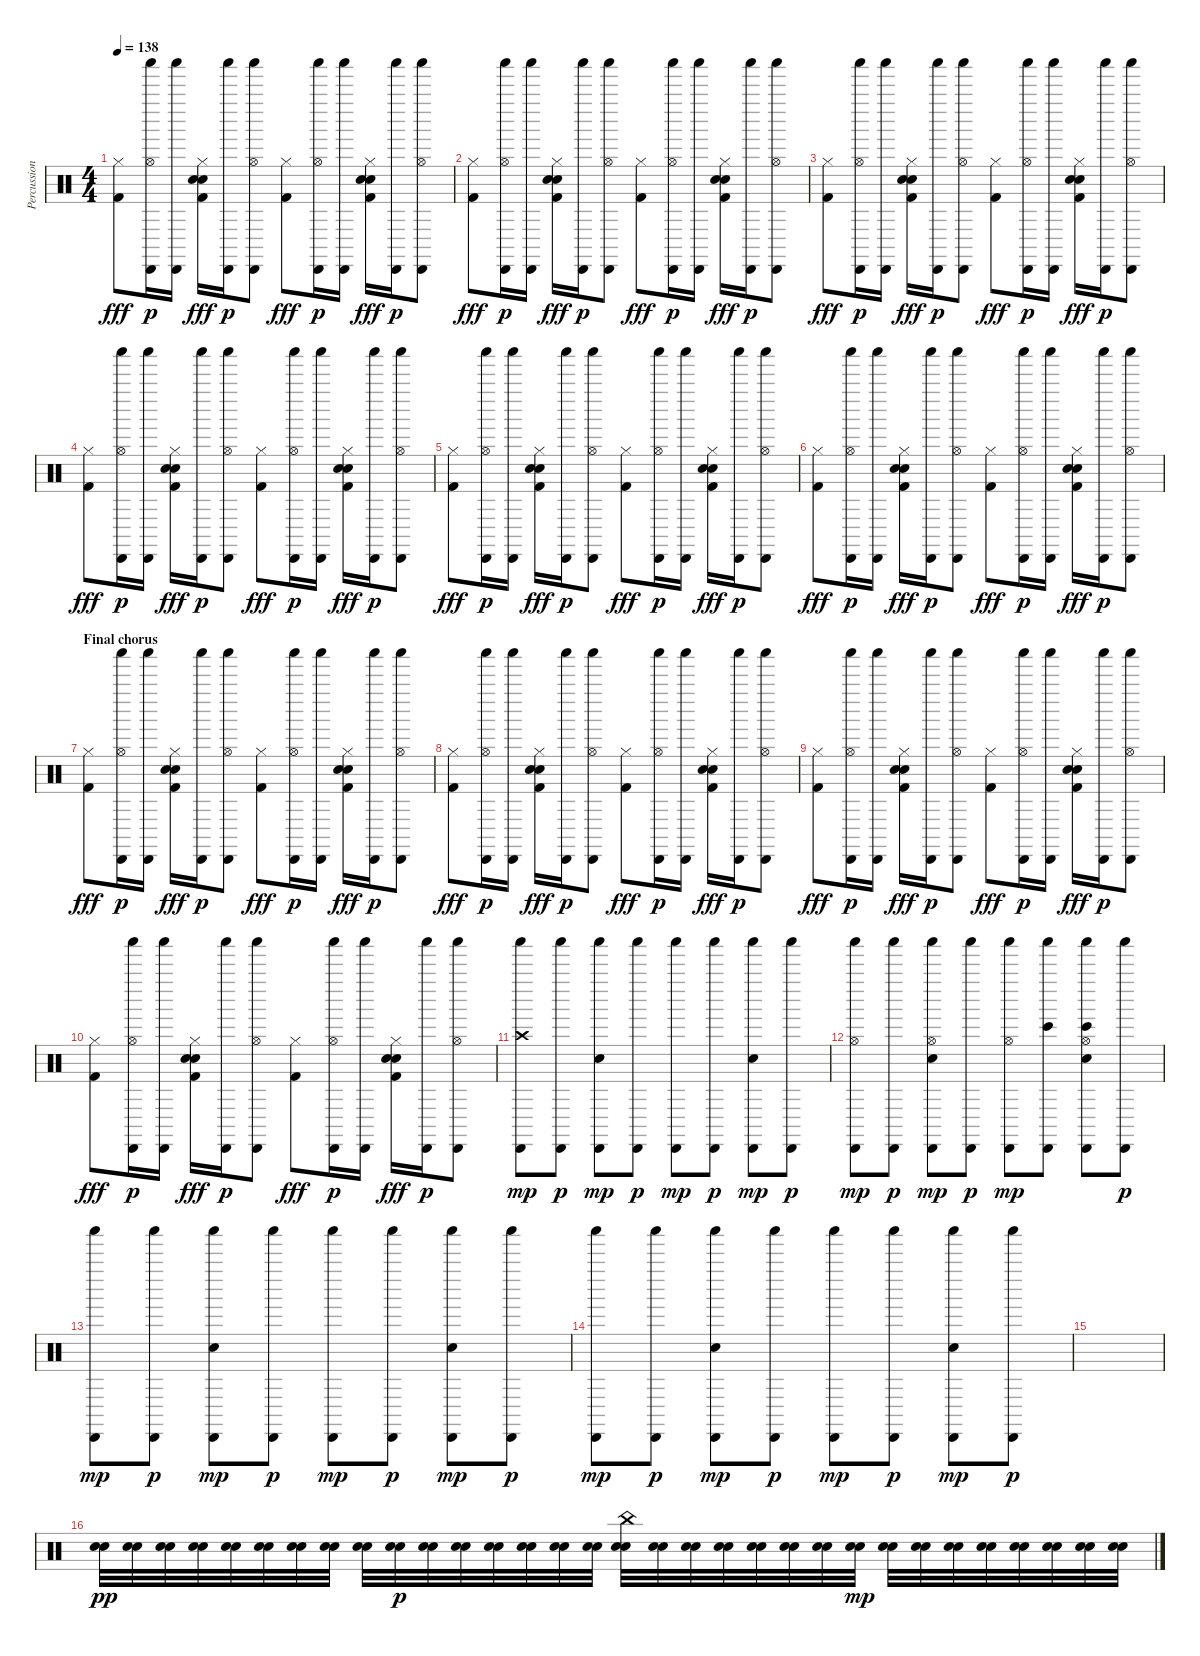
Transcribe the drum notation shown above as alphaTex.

\track ("Percussion" "Percussion") {instrument percussion}
\staff {score}
\articulation defaults
\ts (4 4)
\tempo 138
\clef neutral
\ks c
("Hi-Hat (closed)" "Kick (hit) 2").8{dy fff} ("Cabasa (hit)" "Hi-Hat (open)" "Shaker (hit)").16{dy p} ("Cabasa (hit)" "Shaker (hit)").16 ("Hi-Hat (closed)" "Snare (hit) 2" "Hand Clap (hit)" "Kick (hit) 2").16{dy fff} ("Cabasa (hit)" "Shaker (hit)").16{dy p} ("Cabasa (hit)" "Hi-Hat (open)" "Shaker (hit)").8 ("Hi-Hat (closed)" "Kick (hit) 2").8{dy fff} ("Cabasa (hit)" "Hi-Hat (open)" "Shaker (hit)").16{dy p} ("Cabasa (hit)" "Shaker (hit)").16 ("Hi-Hat (closed)" "Snare (hit) 2" "Hand Clap (hit)" "Kick (hit) 2").16{dy fff} ("Cabasa (hit)" "Shaker (hit)").16{dy p} ("Cabasa (hit)" "Hi-Hat (open)" "Shaker (hit)").8 |
("Hi-Hat (closed)" "Kick (hit) 2").8{dy fff} ("Cabasa (hit)" "Hi-Hat (open)" "Shaker (hit)").16{dy p} ("Cabasa (hit)" "Shaker (hit)").16 ("Hi-Hat (closed)" "Snare (hit) 2" "Hand Clap (hit)" "Kick (hit) 2").16{dy fff} ("Cabasa (hit)" "Shaker (hit)").16{dy p} ("Cabasa (hit)" "Hi-Hat (open)" "Shaker (hit)").8 ("Hi-Hat (closed)" "Kick (hit) 2").8{dy fff} ("Cabasa (hit)" "Hi-Hat (open)" "Shaker (hit)").16{dy p} ("Cabasa (hit)" "Shaker (hit)").16 ("Hi-Hat (closed)" "Snare (hit) 2" "Hand Clap (hit)" "Kick (hit) 2").16{dy fff} ("Cabasa (hit)" "Shaker (hit)").16{dy p} ("Cabasa (hit)" "Hi-Hat (open)" "Shaker (hit)").8 |
("Hi-Hat (closed)" "Kick (hit) 2").8{dy fff} ("Cabasa (hit)" "Hi-Hat (open)" "Shaker (hit)").16{dy p} ("Cabasa (hit)" "Shaker (hit)").16 ("Hi-Hat (closed)" "Snare (hit) 2" "Hand Clap (hit)" "Kick (hit) 2").16{dy fff} ("Cabasa (hit)" "Shaker (hit)").16{dy p} ("Cabasa (hit)" "Hi-Hat (open)" "Shaker (hit)").8 ("Hi-Hat (closed)" "Kick (hit) 2").8{dy fff} ("Cabasa (hit)" "Hi-Hat (open)" "Shaker (hit)").16{dy p} ("Cabasa (hit)" "Shaker (hit)").16 ("Hi-Hat (closed)" "Snare (hit) 2" "Hand Clap (hit)" "Kick (hit) 2").16{dy fff} ("Cabasa (hit)" "Shaker (hit)").16{dy p} ("Cabasa (hit)" "Hi-Hat (open)" "Shaker (hit)").8 |
("Hi-Hat (closed)" "Kick (hit) 2").8{dy fff} ("Cabasa (hit)" "Hi-Hat (open)" "Shaker (hit)").16{dy p} ("Cabasa (hit)" "Shaker (hit)").16 ("Hi-Hat (closed)" "Snare (hit) 2" "Hand Clap (hit)" "Kick (hit) 2").16{dy fff} ("Cabasa (hit)" "Shaker (hit)").16{dy p} ("Cabasa (hit)" "Hi-Hat (open)" "Shaker (hit)").8 ("Hi-Hat (closed)" "Kick (hit) 2").8{dy fff} ("Cabasa (hit)" "Hi-Hat (open)" "Shaker (hit)").16{dy p} ("Cabasa (hit)" "Shaker (hit)").16 ("Hi-Hat (closed)" "Snare (hit) 2" "Hand Clap (hit)" "Kick (hit) 2").16{dy fff} ("Cabasa (hit)" "Shaker (hit)").16{dy p} ("Cabasa (hit)" "Hi-Hat (open)" "Shaker (hit)").8 |
("Hi-Hat (closed)" "Kick (hit) 2").8{dy fff} ("Cabasa (hit)" "Hi-Hat (open)" "Shaker (hit)").16{dy p} ("Cabasa (hit)" "Shaker (hit)").16 ("Hi-Hat (closed)" "Snare (hit) 2" "Hand Clap (hit)" "Kick (hit) 2").16{dy fff} ("Cabasa (hit)" "Shaker (hit)").16{dy p} ("Cabasa (hit)" "Hi-Hat (open)" "Shaker (hit)").8 ("Hi-Hat (closed)" "Kick (hit) 2").8{dy fff} ("Cabasa (hit)" "Hi-Hat (open)" "Shaker (hit)").16{dy p} ("Cabasa (hit)" "Shaker (hit)").16 ("Hi-Hat (closed)" "Snare (hit) 2" "Hand Clap (hit)" "Kick (hit) 2").16{dy fff} ("Cabasa (hit)" "Shaker (hit)").16{dy p} ("Cabasa (hit)" "Hi-Hat (open)" "Shaker (hit)").8 |
("Hi-Hat (closed)" "Kick (hit) 2").8{dy fff} ("Cabasa (hit)" "Hi-Hat (open)" "Shaker (hit)").16{dy p} ("Cabasa (hit)" "Shaker (hit)").16 ("Hi-Hat (closed)" "Snare (hit) 2" "Hand Clap (hit)" "Kick (hit) 2").16{dy fff} ("Cabasa (hit)" "Shaker (hit)").16{dy p} ("Cabasa (hit)" "Hi-Hat (open)" "Shaker (hit)").8 ("Hi-Hat (closed)" "Kick (hit) 2").8{dy fff} ("Cabasa (hit)" "Hi-Hat (open)" "Shaker (hit)").16{dy p} ("Cabasa (hit)" "Shaker (hit)").16 ("Hi-Hat (closed)" "Snare (hit) 2" "Hand Clap (hit)" "Kick (hit) 2").16{dy fff} ("Cabasa (hit)" "Shaker (hit)").16{dy p} ("Cabasa (hit)" "Hi-Hat (open)" "Shaker (hit)").8 |
\section ("" "Final chorus")
("Hi-Hat (closed)" "Kick (hit) 2").8{dy fff} ("Cabasa (hit)" "Hi-Hat (open)" "Shaker (hit)").16{dy p} ("Cabasa (hit)" "Shaker (hit)").16 ("Hi-Hat (closed)" "Snare (hit) 2" "Hand Clap (hit)" "Kick (hit) 2").16{dy fff} ("Cabasa (hit)" "Shaker (hit)").16{dy p} ("Cabasa (hit)" "Hi-Hat (open)" "Shaker (hit)").8 ("Hi-Hat (closed)" "Kick (hit) 2").8{dy fff} ("Cabasa (hit)" "Hi-Hat (open)" "Shaker (hit)").16{dy p} ("Cabasa (hit)" "Shaker (hit)").16 ("Hi-Hat (closed)" "Snare (hit) 2" "Hand Clap (hit)" "Kick (hit) 2").16{dy fff} ("Cabasa (hit)" "Shaker (hit)").16{dy p} ("Cabasa (hit)" "Hi-Hat (open)" "Shaker (hit)").8 |
("Hi-Hat (closed)" "Kick (hit) 2").8{dy fff} ("Cabasa (hit)" "Hi-Hat (open)" "Shaker (hit)").16{dy p} ("Cabasa (hit)" "Shaker (hit)").16 ("Hi-Hat (closed)" "Snare (hit) 2" "Hand Clap (hit)" "Kick (hit) 2").16{dy fff} ("Cabasa (hit)" "Shaker (hit)").16{dy p} ("Cabasa (hit)" "Hi-Hat (open)" "Shaker (hit)").8 ("Hi-Hat (closed)" "Kick (hit) 2").8{dy fff} ("Cabasa (hit)" "Hi-Hat (open)" "Shaker (hit)").16{dy p} ("Cabasa (hit)" "Shaker (hit)").16 ("Hi-Hat (closed)" "Snare (hit) 2" "Hand Clap (hit)" "Kick (hit) 2").16{dy fff} ("Cabasa (hit)" "Shaker (hit)").16{dy p} ("Cabasa (hit)" "Hi-Hat (open)" "Shaker (hit)").8 |
("Hi-Hat (closed)" "Kick (hit) 2").8{dy fff} ("Cabasa (hit)" "Hi-Hat (open)" "Shaker (hit)").16{dy p} ("Cabasa (hit)" "Shaker (hit)").16 ("Hi-Hat (closed)" "Snare (hit) 2" "Hand Clap (hit)" "Kick (hit) 2").16{dy fff} ("Cabasa (hit)" "Shaker (hit)").16{dy p} ("Cabasa (hit)" "Hi-Hat (open)" "Shaker (hit)").8 ("Hi-Hat (closed)" "Kick (hit) 2").8{dy fff} ("Cabasa (hit)" "Hi-Hat (open)" "Shaker (hit)").16{dy p} ("Cabasa (hit)" "Shaker (hit)").16 ("Hi-Hat (closed)" "Snare (hit) 2" "Hand Clap (hit)" "Kick (hit) 2").16{dy fff} ("Cabasa (hit)" "Shaker (hit)").16{dy p} ("Cabasa (hit)" "Hi-Hat (open)" "Shaker (hit)").8 |
("Hi-Hat (closed)" "Kick (hit) 2").8{dy fff} ("Cabasa (hit)" "Hi-Hat (open)" "Shaker (hit)").16{dy p} ("Cabasa (hit)" "Shaker (hit)").16 ("Hi-Hat (closed)" "Snare (hit) 2" "Hand Clap (hit)" "Kick (hit) 2").16{dy fff} ("Cabasa (hit)" "Shaker (hit)").16{dy p} ("Cabasa (hit)" "Hi-Hat (open)" "Shaker (hit)").8 ("Hi-Hat (closed)" "Kick (hit) 2").8{dy fff} ("Cabasa (hit)" "Hi-Hat (open)" "Shaker (hit)").16{dy p} ("Cabasa (hit)" "Shaker (hit)").16 ("Hi-Hat (closed)" "Snare (hit) 2" "Hand Clap (hit)" "Kick (hit) 2").16{dy fff} ("Cabasa (hit)" "Shaker (hit)").16{dy p} ("Cabasa (hit)" "Hi-Hat (open)" "Shaker (hit)").8 |
("Cabasa (hit)" "Shaker (hit)" "Crash high (hit)").8{dy mp} ("Cabasa (hit)" "Shaker (hit)").8{dy p} ("Cabasa (hit)" "Shaker (hit)" "Hand Clap (hit)").8{dy mp} ("Cabasa (hit)" "Shaker (hit)").8{dy p} ("Cabasa (hit)" "Shaker (hit)").8{dy mp} ("Cabasa (hit)" "Shaker (hit)").8{dy p} ("Cabasa (hit)" "Shaker (hit)" "Hand Clap (hit)").8{dy mp} ("Cabasa (hit)" "Shaker (hit)").8{dy p} |
("Cabasa (hit)" "Hi-Hat (open)" "Shaker (hit)").8{dy mp} ("Cabasa (hit)" "Shaker (hit)").8{dy p} ("Cabasa (hit)" "Hi-Hat (open)" "Shaker (hit)" "Hand Clap (hit)").8{dy mp} ("Cabasa (hit)" "Shaker (hit)").8{dy p} ("Cabasa (hit)" "Hi-Hat (open)" "Shaker (hit)").8{dy mp} ("Cabasa (hit)" "Shaker (hit)" "Bongo High (hit)").8 ("Cabasa (hit)" "Hi-Hat (open)" "Shaker (hit)" "Bongo High (hit)" "Hand Clap (hit)").8 ("Cabasa (hit)" "Shaker (hit)").8{dy p} |
("Cabasa (hit)" "Shaker (hit)").8{dy mp} ("Cabasa (hit)" "Shaker (hit)").8{dy p} ("Cabasa (hit)" "Shaker (hit)" "Hand Clap (hit)").8{dy mp} ("Cabasa (hit)" "Shaker (hit)").8{dy p} ("Cabasa (hit)" "Shaker (hit)").8{dy mp} ("Cabasa (hit)" "Shaker (hit)").8{dy p} ("Cabasa (hit)" "Shaker (hit)" "Hand Clap (hit)").8{dy mp} ("Cabasa (hit)" "Shaker (hit)").8{dy p} |
("Cabasa (hit)" "Shaker (hit)").8{dy mp} ("Cabasa (hit)" "Shaker (hit)").8{dy p} ("Cabasa (hit)" "Shaker (hit)" "Hand Clap (hit)").8{dy mp} ("Cabasa (hit)" "Shaker (hit)").8{dy p} ("Cabasa (hit)" "Shaker (hit)").8{dy mp} ("Cabasa (hit)" "Shaker (hit)").8{dy p} ("Cabasa (hit)" "Shaker (hit)" "Hand Clap (hit)").8{dy mp} ("Cabasa (hit)" "Shaker (hit)").8{dy p} |
|
("Snare (hit) 2" "Snare (hit) 2").32{dy pp} ("Snare (hit) 2" "Snare (hit) 2").32 ("Snare (hit) 2" "Snare (hit) 2").32 ("Snare (hit) 2" "Snare (hit) 2").32 ("Snare (hit) 2" "Snare (hit) 2").32 ("Snare (hit) 2" "Snare (hit) 2").32 ("Snare (hit) 2" "Snare (hit) 2").32 ("Snare (hit) 2" "Snare (hit) 2").32 ("Snare (hit) 2" "Snare (hit) 2").32 ("Snare (hit) 2" "Snare (hit) 2").32{dy p} ("Snare (hit) 2" "Snare (hit) 2").32 ("Snare (hit) 2" "Snare (hit) 2").32 ("Snare (hit) 2" "Snare (hit) 2").32 ("Snare (hit) 2" "Snare (hit) 2").32 ("Snare (hit) 2" "Snare (hit) 2").32 ("Snare (hit) 2" "Snare (hit) 2").32 ("Snare (hit) 2" "China (hit)" "Snare (hit) 2").32 ("Snare (hit) 2" "Snare (hit) 2").32 ("Snare (hit) 2" "Snare (hit) 2").32 ("Snare (hit) 2" "Snare (hit) 2").32 ("Snare (hit) 2" "Snare (hit) 2").32 ("Snare (hit) 2" "Snare (hit) 2").32 ("Snare (hit) 2" "Snare (hit) 2").32 ("Snare (hit) 2" "Snare (hit) 2").32{dy mp} ("Snare (hit) 2" "Snare (hit) 2").32 ("Snare (hit) 2" "Snare (hit) 2").32 ("Snare (hit) 2" "Snare (hit) 2").32 ("Snare (hit) 2" "Snare (hit) 2").32 ("Snare (hit) 2" "Snare (hit) 2").32 ("Snare (hit) 2" "Snare (hit) 2").32 ("Snare (hit) 2" "Snare (hit) 2").32 ("Snare (hit) 2" "Snare (hit) 2").32
